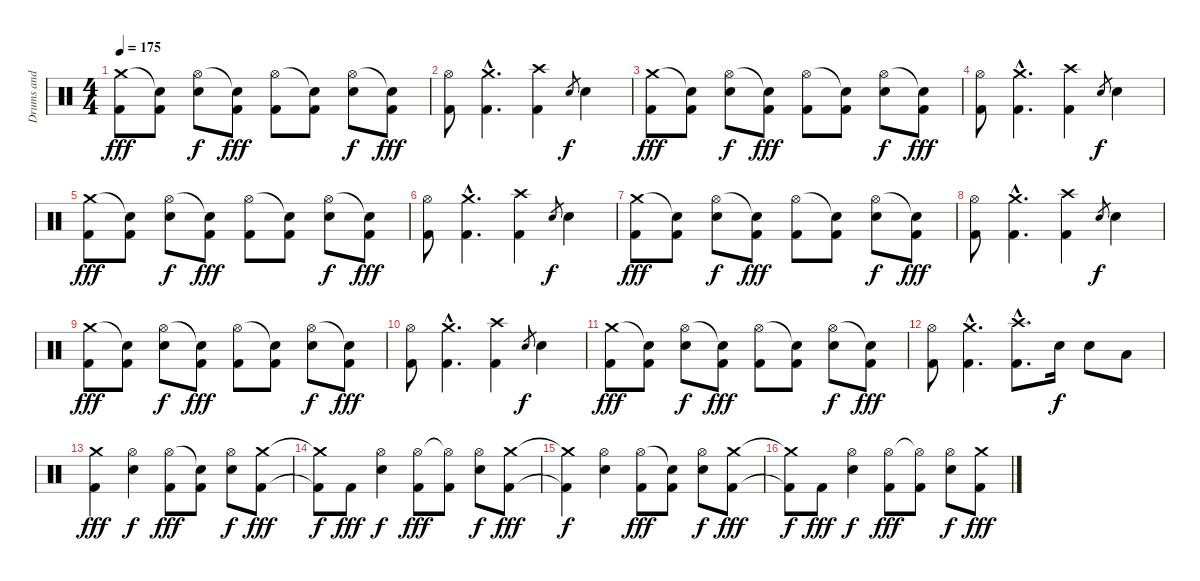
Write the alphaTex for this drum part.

\track ("Drums and Percussion" "Drums and ") {instrument percussion}
\staff {score}
\articulation defaults
\ts (4 4)
\tempo 175
\clef neutral
\ks c
("Crash medium (hit)" "Kick (hit) 2").8{dy fff} ("Snare (hit)"{t} "Kick (hit) 2").8 ("Hi-Hat (open)" "Snare (hit) 2").8{dy f} ("Snare (hit)"{t} "Kick (hit) 2").8{dy fff} ("Hi-Hat (open)" "Kick (hit) 2").8 ("Snare (hit)"{t} "Kick (hit) 2").8 ("Hi-Hat (open)" "Snare (hit) 2").8{dy f} ("Snare (hit)"{t} "Kick (hit) 2").8{dy fff} |
("Hi-Hat (open)" "Kick (hit) 2").8 ("Crash medium (hit)"{hac} "Kick (hit) 2"{hac}).4{d} ("Crash high (hit)" "Kick (hit) 2").4 "Snare (hit) 2".8{gr dy f} "Snare (hit) 2".4 |
("Crash medium (hit)" "Kick (hit) 2").8{dy fff} ("Snare (hit)"{t} "Kick (hit) 2").8 ("Hi-Hat (open)" "Snare (hit) 2").8{dy f} ("Snare (hit)"{t} "Kick (hit) 2").8{dy fff} ("Hi-Hat (open)" "Kick (hit) 2").8 ("Snare (hit)"{t} "Kick (hit) 2").8 ("Hi-Hat (open)" "Snare (hit) 2").8{dy f} ("Snare (hit)"{t} "Kick (hit) 2").8{dy fff} |
("Hi-Hat (open)" "Kick (hit) 2").8 ("Crash medium (hit)"{hac} "Kick (hit) 2"{hac}).4{d} ("Crash high (hit)" "Kick (hit) 2").4 "Snare (hit) 2".8{gr dy f} "Snare (hit) 2".4 |
("Crash medium (hit)" "Kick (hit) 2").8{dy fff} ("Snare (hit)"{t} "Kick (hit) 2").8 ("Hi-Hat (open)" "Snare (hit) 2").8{dy f} ("Snare (hit)"{t} "Kick (hit) 2").8{dy fff} ("Hi-Hat (open)" "Kick (hit) 2").8 ("Snare (hit)"{t} "Kick (hit) 2").8 ("Hi-Hat (open)" "Snare (hit) 2").8{dy f} ("Snare (hit)"{t} "Kick (hit) 2").8{dy fff} |
("Hi-Hat (open)" "Kick (hit) 2").8 ("Crash medium (hit)"{hac} "Kick (hit) 2"{hac}).4{d} ("Crash high (hit)" "Kick (hit) 2").4 "Snare (hit) 2".8{gr dy f} "Snare (hit) 2".4 |
("Crash medium (hit)" "Kick (hit) 2").8{dy fff} ("Snare (hit)"{t} "Kick (hit) 2").8 ("Hi-Hat (open)" "Snare (hit) 2").8{dy f} ("Snare (hit)"{t} "Kick (hit) 2").8{dy fff} ("Hi-Hat (open)" "Kick (hit) 2").8 ("Snare (hit)"{t} "Kick (hit) 2").8 ("Hi-Hat (open)" "Snare (hit) 2").8{dy f} ("Snare (hit)"{t} "Kick (hit) 2").8{dy fff} |
("Hi-Hat (open)" "Kick (hit) 2").8 ("Crash medium (hit)"{hac} "Kick (hit) 2"{hac}).4{d} ("Crash high (hit)" "Kick (hit) 2").4 "Snare (hit) 2".8{gr dy f} "Snare (hit) 2".4 |
("Crash medium (hit)" "Kick (hit) 2").8{dy fff} ("Snare (hit)"{t} "Kick (hit) 2").8 ("Hi-Hat (open)" "Snare (hit) 2").8{dy f} ("Snare (hit)"{t} "Kick (hit) 2").8{dy fff} ("Hi-Hat (open)" "Kick (hit) 2").8 ("Snare (hit)"{t} "Kick (hit) 2").8 ("Hi-Hat (open)" "Snare (hit) 2").8{dy f} ("Snare (hit)"{t} "Kick (hit) 2").8{dy fff} |
("Hi-Hat (open)" "Kick (hit) 2").8 ("Crash medium (hit)"{hac} "Kick (hit) 2"{hac}).4{d} ("Crash high (hit)" "Kick (hit) 2").4 "Snare (hit) 2".8{gr dy f} "Snare (hit) 2".4 |
("Crash medium (hit)" "Kick (hit) 2").8{dy fff} ("Snare (hit)"{t} "Kick (hit) 2").8 ("Hi-Hat (open)" "Snare (hit) 2").8{dy f} ("Snare (hit)"{t} "Kick (hit) 2").8{dy fff} ("Hi-Hat (open)" "Kick (hit) 2").8 ("Snare (hit)"{t} "Kick (hit) 2").8 ("Hi-Hat (open)" "Snare (hit) 2").8{dy f} ("Snare (hit)"{t} "Kick (hit) 2").8{dy fff} |
("Hi-Hat (open)" "Kick (hit) 2").8 ("Crash medium (hit)"{hac} "Kick (hit) 2"{hac}).4{d} ("Crash high (hit)"{hac} "Kick (hit) 2"{hac}).8{d} "Snare (hit) 2".16{dy f} "Snare (hit) 2".8 "Low Tom (hit)".8 |
("Crash medium (hit)" "Kick (hit) 2").4{dy fff} ("Hi-Hat (open)" "Snare (hit) 2").4{dy f} ("Hi-Hat (open)" "Kick (hit) 2").8{dy fff} ("Snare (hit)"{t} "Kick (hit) 2").8 ("Hi-Hat (open)" "Snare (hit) 2").8{dy f} ("Crash medium (hit)" "Kick (hit) 2").8{dy fff} |
("Crash medium (hit)"{t} "Kick (hit) 2"{t}).8{dy f} "Kick (hit) 2".8{dy fff} ("Hi-Hat (open)" "Snare (hit) 2").4{dy f} ("Hi-Hat (open)" "Kick (hit) 2").8{dy fff} ("Hi-Hat (open)"{t} "Kick (hit) 2").8 ("Hi-Hat (open)" "Snare (hit) 2").8{dy f} ("Crash medium (hit)" "Kick (hit) 2").8{dy fff} |
("Crash medium (hit)"{t} "Kick (hit) 2"{t}).4{dy f} ("Hi-Hat (open)" "Snare (hit) 2").4 ("Hi-Hat (open)" "Kick (hit) 2").8{dy fff} ("Snare (hit)"{t} "Kick (hit) 2").8 ("Hi-Hat (open)" "Snare (hit) 2").8{dy f} ("Crash medium (hit)" "Kick (hit) 2").8{dy fff} |
("Crash medium (hit)"{t} "Kick (hit) 2"{t}).8{dy f} "Kick (hit) 2".8{dy fff} ("Hi-Hat (open)" "Snare (hit) 2").4{dy f} ("Hi-Hat (open)" "Kick (hit) 2").8{dy fff} ("Hi-Hat (open)"{t} "Kick (hit) 2").8 ("Hi-Hat (open)" "Snare (hit) 2").8{dy f} ("Crash medium (hit)" "Kick (hit) 2").8{dy fff}
